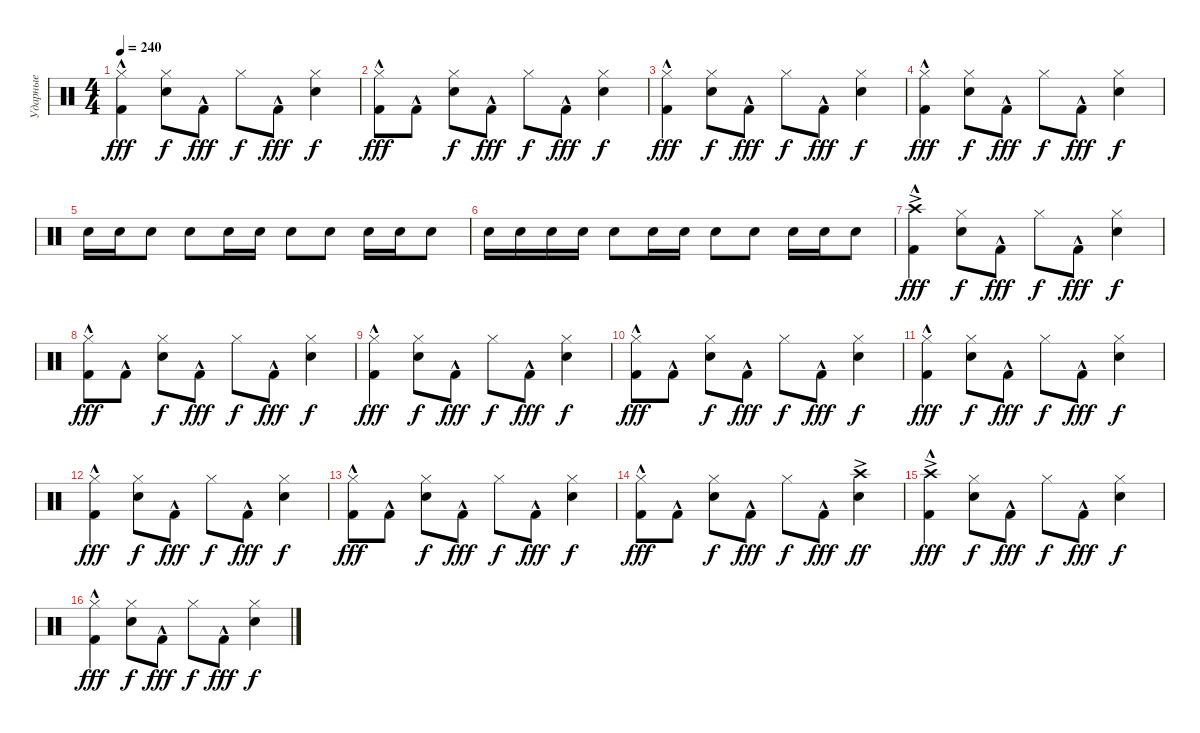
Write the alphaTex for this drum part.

\track ("Ударные" "Ударные") {instrument percussion}
\staff {score}
\articulation defaults
\ts (4 4)
\tempo 240
\clef neutral
\ks c
("Hi-Hat (closed)" "Kick (hit) 2"{hac}).4{dy fff} ("Hi-Hat (closed)" "Snare (hit) 2").8{dy f} "Kick (hit) 2"{hac}.8{dy fff} "Hi-Hat (closed)".8{dy f} "Kick (hit) 2"{hac}.8{dy fff} ("Hi-Hat (closed)" "Snare (hit) 2").4{dy f} |
("Hi-Hat (closed)" "Kick (hit) 2"{hac}).8{dy fff} "Kick (hit) 2"{hac}.8 ("Hi-Hat (closed)" "Snare (hit) 2").8{dy f} "Kick (hit) 2"{hac}.8{dy fff} "Hi-Hat (closed)".8{dy f} "Kick (hit) 2"{hac}.8{dy fff} ("Hi-Hat (closed)" "Snare (hit) 2").4{dy f} |
("Hi-Hat (closed)" "Kick (hit) 2"{hac}).4{dy fff} ("Hi-Hat (closed)" "Snare (hit) 2").8{dy f} "Kick (hit) 2"{hac}.8{dy fff} "Hi-Hat (closed)".8{dy f} "Kick (hit) 2"{hac}.8{dy fff} ("Hi-Hat (closed)" "Snare (hit) 2").4{dy f} |
("Hi-Hat (closed)" "Kick (hit) 2"{hac}).4{dy fff} ("Hi-Hat (closed)" "Snare (hit) 2").8{dy f} "Kick (hit) 2"{hac}.8{dy fff} "Hi-Hat (closed)".8{dy f} "Kick (hit) 2"{hac}.8{dy fff} ("Hi-Hat (closed)" "Snare (hit) 2").4{dy f} |
"Snare (hit) 2".16 "Snare (hit) 2".16 "Snare (hit) 2".8 "Snare (hit) 2".8 "Snare (hit) 2".16 "Snare (hit) 2".16 "Snare (hit) 2".8 "Snare (hit) 2".8 "Snare (hit) 2".16 "Snare (hit) 2".16 "Snare (hit) 2".8 |
"Snare (hit) 2".16 "Snare (hit) 2".16 "Snare (hit) 2".16 "Snare (hit) 2".16 "Snare (hit) 2".8 "Snare (hit) 2".16 "Snare (hit) 2".16 "Snare (hit) 2".8 "Snare (hit) 2".8 "Snare (hit) 2".16 "Snare (hit) 2".16 "Snare (hit) 2".8 |
("Crash high (hit)"{ac} "Kick (hit) 2"{hac}).4{dy fff} ("Hi-Hat (closed)" "Snare (hit) 2").8{dy f} "Kick (hit) 2"{hac}.8{dy fff} "Hi-Hat (closed)".8{dy f} "Kick (hit) 2"{hac}.8{dy fff} ("Hi-Hat (closed)" "Snare (hit) 2").4{dy f} |
("Hi-Hat (closed)" "Kick (hit) 2"{hac}).8{dy fff} "Kick (hit) 2"{hac}.8 ("Hi-Hat (closed)" "Snare (hit) 2").8{dy f} "Kick (hit) 2"{hac}.8{dy fff} "Hi-Hat (closed)".8{dy f} "Kick (hit) 2"{hac}.8{dy fff} ("Hi-Hat (closed)" "Snare (hit) 2").4{dy f} |
("Hi-Hat (closed)" "Kick (hit) 2"{hac}).4{dy fff} ("Hi-Hat (closed)" "Snare (hit) 2").8{dy f} "Kick (hit) 2"{hac}.8{dy fff} "Hi-Hat (closed)".8{dy f} "Kick (hit) 2"{hac}.8{dy fff} ("Hi-Hat (closed)" "Snare (hit) 2").4{dy f} |
("Hi-Hat (closed)" "Kick (hit) 2"{hac}).8{dy fff} "Kick (hit) 2"{hac}.8 ("Hi-Hat (closed)" "Snare (hit) 2").8{dy f} "Kick (hit) 2"{hac}.8{dy fff} "Hi-Hat (closed)".8{dy f} "Kick (hit) 2"{hac}.8{dy fff} ("Hi-Hat (closed)" "Snare (hit) 2").4{dy f} |
("Hi-Hat (closed)" "Kick (hit) 2"{hac}).4{dy fff} ("Hi-Hat (closed)" "Snare (hit) 2").8{dy f} "Kick (hit) 2"{hac}.8{dy fff} "Hi-Hat (closed)".8{dy f} "Kick (hit) 2"{hac}.8{dy fff} ("Hi-Hat (closed)" "Snare (hit) 2").4{dy f} |
("Hi-Hat (closed)" "Kick (hit) 2"{hac}).4{dy fff} ("Hi-Hat (closed)" "Snare (hit) 2").8{dy f} "Kick (hit) 2"{hac}.8{dy fff} "Hi-Hat (closed)".8{dy f} "Kick (hit) 2"{hac}.8{dy fff} ("Hi-Hat (closed)" "Snare (hit) 2").4{dy f} |
("Hi-Hat (closed)" "Kick (hit) 2"{hac}).8{dy fff} "Kick (hit) 2"{hac}.8 ("Hi-Hat (closed)" "Snare (hit) 2").8{dy f} "Kick (hit) 2"{hac}.8{dy fff} "Hi-Hat (closed)".8{dy f} "Kick (hit) 2"{hac}.8{dy fff} ("Hi-Hat (closed)" "Snare (hit) 2").4{dy f} |
("Hi-Hat (closed)" "Kick (hit) 2"{hac}).8{dy fff} "Kick (hit) 2"{hac}.8 ("Hi-Hat (closed)" "Snare (hit) 2").8{dy f} "Kick (hit) 2"{hac}.8{dy fff} "Hi-Hat (closed)".8{dy f} "Kick (hit) 2"{hac}.8{dy fff} ("Crash high (hit)"{ac} "Snare (hit) 2").4{dy ff} |
("Crash high (hit)"{ac} "Kick (hit) 2"{hac}).4{dy fff} ("Hi-Hat (closed)" "Snare (hit) 2").8{dy f} "Kick (hit) 2"{hac}.8{dy fff} "Hi-Hat (closed)".8{dy f} "Kick (hit) 2"{hac}.8{dy fff} ("Hi-Hat (closed)" "Snare (hit) 2").4{dy f} |
("Hi-Hat (closed)" "Kick (hit) 2"{hac}).4{dy fff} ("Hi-Hat (closed)" "Snare (hit) 2").8{dy f} "Kick (hit) 2"{hac}.8{dy fff} "Hi-Hat (closed)".8{dy f} "Kick (hit) 2"{hac}.8{dy fff} ("Hi-Hat (closed)" "Snare (hit) 2").4{dy f}
